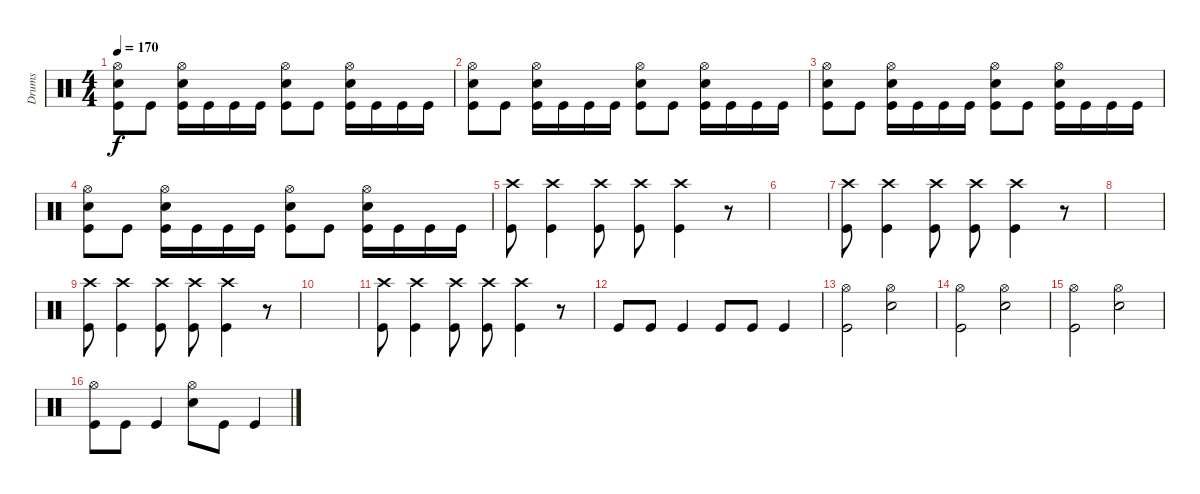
\track ("Drums" "Drums") {instrument percussion}
\staff {score}
\articulation defaults
\ts (4 4)
\tempo 170
\clef neutral
\ks c
("Hi-Hat (open)" "Snare (hit) 2" "Kick (hit)").8{dy f} "Kick (hit)".8 ("Hi-Hat (open)" "Snare (hit) 2" "Kick (hit)").16 "Kick (hit)".16 "Kick (hit)".16 "Kick (hit)".16 ("Hi-Hat (open)" "Snare (hit) 2" "Kick (hit)").8 "Kick (hit)".8 ("Hi-Hat (open)" "Snare (hit) 2" "Kick (hit)").16 "Kick (hit)".16 "Kick (hit)".16 "Kick (hit)".16 |
("Hi-Hat (open)" "Snare (hit) 2" "Kick (hit)").8 "Kick (hit)".8 ("Hi-Hat (open)" "Snare (hit) 2" "Kick (hit)").16 "Kick (hit)".16 "Kick (hit)".16 "Kick (hit)".16 ("Hi-Hat (open)" "Snare (hit) 2" "Kick (hit)").8 "Kick (hit)".8 ("Hi-Hat (open)" "Snare (hit) 2" "Kick (hit)").16 "Kick (hit)".16 "Kick (hit)".16 "Kick (hit)".16 |
("Hi-Hat (open)" "Snare (hit) 2" "Kick (hit)").8 "Kick (hit)".8 ("Hi-Hat (open)" "Snare (hit) 2" "Kick (hit)").16 "Kick (hit)".16 "Kick (hit)".16 "Kick (hit)".16 ("Hi-Hat (open)" "Snare (hit) 2" "Kick (hit)").8 "Kick (hit)".8 ("Hi-Hat (open)" "Snare (hit) 2" "Kick (hit)").16 "Kick (hit)".16 "Kick (hit)".16 "Kick (hit)".16 |
("Hi-Hat (open)" "Snare (hit) 2" "Kick (hit)").8 "Kick (hit)".8 ("Hi-Hat (open)" "Snare (hit) 2" "Kick (hit)").16 "Kick (hit)".16 "Kick (hit)".16 "Kick (hit)".16 ("Hi-Hat (open)" "Snare (hit) 2" "Kick (hit)").8 "Kick (hit)".8 ("Hi-Hat (open)" "Snare (hit) 2" "Kick (hit)").16 "Kick (hit)".16 "Kick (hit)".16 "Kick (hit)".16 |
("Crash high (hit)" "Kick (hit)").8 ("Crash high (hit)" "Kick (hit)").4 ("Crash high (hit)" "Kick (hit)").8 ("Crash high (hit)" "Kick (hit)").8 ("Crash high (hit)" "Kick (hit)").4 r.8 |
|
("Crash high (hit)" "Kick (hit)").8 ("Crash high (hit)" "Kick (hit)").4 ("Crash high (hit)" "Kick (hit)").8 ("Crash high (hit)" "Kick (hit)").8 ("Crash high (hit)" "Kick (hit)").4 r.8 |
|
("Crash high (hit)" "Kick (hit)").8 ("Crash high (hit)" "Kick (hit)").4 ("Crash high (hit)" "Kick (hit)").8 ("Crash high (hit)" "Kick (hit)").8 ("Crash high (hit)" "Kick (hit)").4 r.8 |
|
("Crash high (hit)" "Kick (hit)").8 ("Crash high (hit)" "Kick (hit)").4 ("Crash high (hit)" "Kick (hit)").8 ("Crash high (hit)" "Kick (hit)").8 ("Crash high (hit)" "Kick (hit)").4 r.8 |
"Kick (hit)".8 "Kick (hit)".8 "Kick (hit)".4 "Kick (hit)".8 "Kick (hit)".8 "Kick (hit)".4 |
("Hi-Hat (open)" "Kick (hit)").2 ("Hi-Hat (open)" "Snare (hit) 2").2 |
("Hi-Hat (open)" "Kick (hit)").2 ("Hi-Hat (open)" "Snare (hit) 2").2 |
("Hi-Hat (open)" "Kick (hit)").2 ("Hi-Hat (open)" "Snare (hit) 2").2 |
("Hi-Hat (open)" "Kick (hit)").8 "Kick (hit)".8 "Kick (hit)".4 ("Hi-Hat (open)" "Snare (hit) 2").8 "Kick (hit)".8 "Kick (hit)".4
